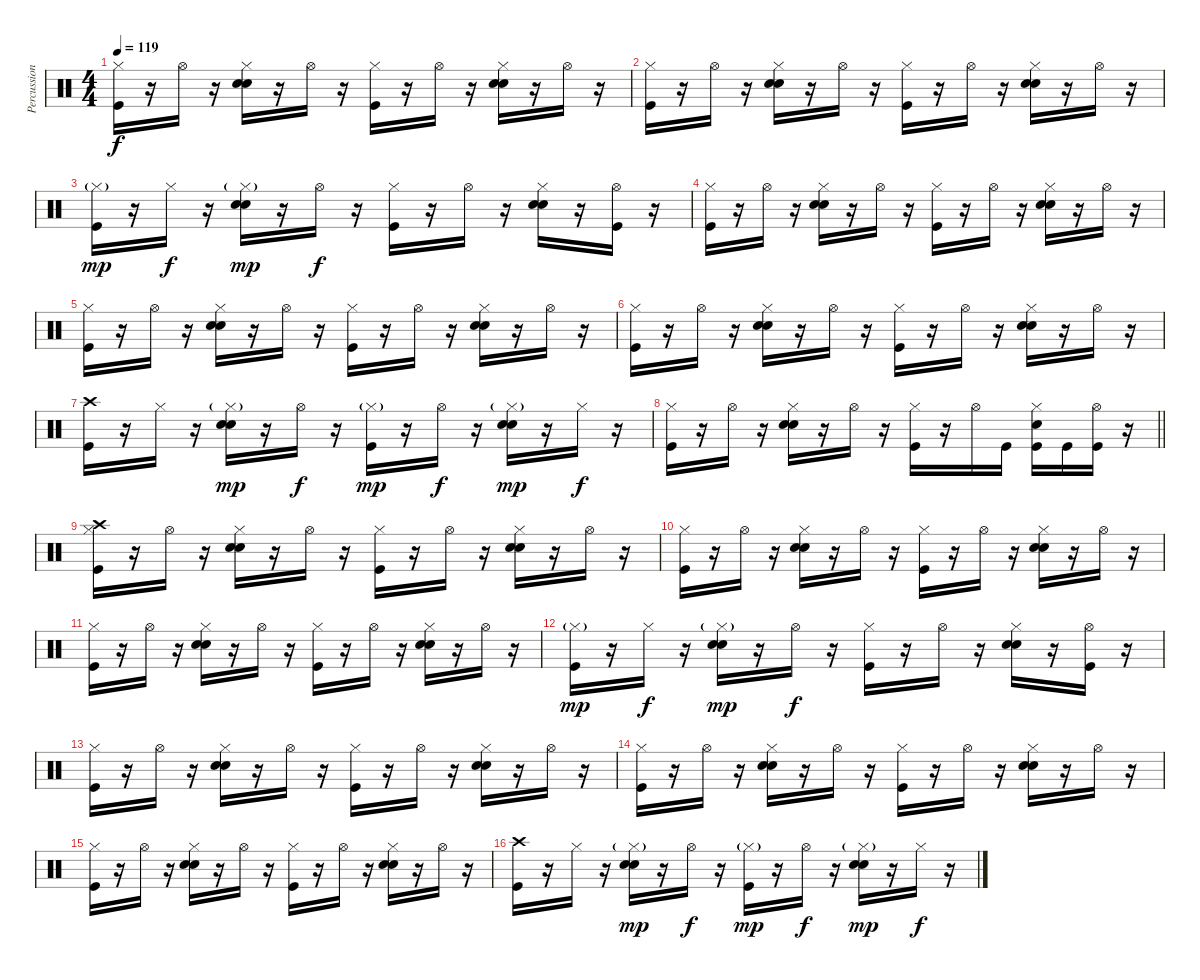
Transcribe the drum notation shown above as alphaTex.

\track ("Percussion" "Percussion") {instrument percussion}
\staff {score}
\articulation defaults
\ts (4 4)
\tempo 119
\clef neutral
\ks c
("Hi-Hat (closed)" "Kick (hit)").16{dy f} r.16 "Hi-Hat (open)".16 r.16 ("Hi-Hat (closed)" "Hand Clap (hit)" "Snare (hit) 2").16 r.16 "Hi-Hat (open)".16 r.16 ("Hi-Hat (closed)" "Kick (hit)").16 r.16 "Hi-Hat (open)".16 r.16 ("Hi-Hat (closed)" "Hand Clap (hit)" "Snare (hit) 2").16 r.16 "Hi-Hat (open)".16 r.16 |
("Hi-Hat (closed)" "Kick (hit)").16 r.16 "Hi-Hat (open)".16 r.16 ("Hi-Hat (closed)" "Hand Clap (hit)" "Snare (hit) 2").16 r.16 "Hi-Hat (open)".16 r.16 ("Hi-Hat (closed)" "Kick (hit)").16 r.16 "Hi-Hat (open)".16 r.16 ("Hi-Hat (closed)" "Hand Clap (hit)" "Snare (hit) 2").16 r.16 "Hi-Hat (open)".16 r.16 |
("Hi-Hat (closed)"{g} "Kick (hit)").16{dy mp} r.16 "Hi-Hat (closed)".16{dy f} r.16 ("Hi-Hat (closed)"{g} "Hand Clap (hit)" "Snare (hit) 2").16{dy mp} r.16 "Hi-Hat (open)".16{dy f} r.16 ("Hi-Hat (closed)" "Kick (hit)").16 r.16 "Hi-Hat (open)".16 r.16 ("Hi-Hat (closed)" "Hand Clap (hit)" "Snare (hit) 2").16 r.16 ("Hi-Hat (open)" "Kick (hit)").16 r.16 |
("Hi-Hat (closed)" "Kick (hit)").16 r.16 "Hi-Hat (open)".16 r.16 ("Hi-Hat (closed)" "Hand Clap (hit)" "Snare (hit) 2").16 r.16 "Hi-Hat (open)".16 r.16 ("Hi-Hat (closed)" "Kick (hit)").16 r.16 "Hi-Hat (open)".16 r.16 ("Hi-Hat (closed)" "Hand Clap (hit)" "Snare (hit) 2").16 r.16 "Hi-Hat (open)".16 r.16 |
("Hi-Hat (closed)" "Kick (hit)").16 r.16 "Hi-Hat (open)".16 r.16 ("Hi-Hat (closed)" "Hand Clap (hit)" "Snare (hit) 2").16 r.16 "Hi-Hat (open)".16 r.16 ("Hi-Hat (closed)" "Kick (hit)").16 r.16 "Hi-Hat (open)".16 r.16 ("Hi-Hat (closed)" "Hand Clap (hit)" "Snare (hit) 2").16 r.16 "Hi-Hat (open)".16 r.16 |
("Hi-Hat (closed)" "Kick (hit)").16 r.16 "Hi-Hat (open)".16 r.16 ("Hi-Hat (closed)" "Hand Clap (hit)" "Snare (hit) 2").16 r.16 "Hi-Hat (open)".16 r.16 ("Hi-Hat (closed)" "Kick (hit)").16 r.16 "Hi-Hat (open)".16 r.16 ("Hi-Hat (closed)" "Hand Clap (hit)" "Snare (hit) 2").16 r.16 "Hi-Hat (open)".16 r.16 |
("Crash high (hit)" "Kick (hit)").16 r.16 "Hi-Hat (closed)".16 r.16 ("Hi-Hat (closed)"{g} "Hand Clap (hit)" "Snare (hit) 2").16{dy mp} r.16 "Hi-Hat (open)".16{dy f} r.16 ("Hi-Hat (closed)"{g} "Kick (hit)").16{dy mp} r.16 "Hi-Hat (open)".16{dy f} r.16 ("Hi-Hat (closed)"{g} "Hand Clap (hit)" "Snare (hit) 2").16{dy mp} r.16 "Hi-Hat (closed)".16{dy f} r.16 |
\barLineRight lightlight
("Hi-Hat (closed)" "Kick (hit)").16 r.16 "Hi-Hat (open)".16 r.16 ("Hi-Hat (closed)" "Hand Clap (hit)" "Snare (hit) 2").16 r.16 "Hi-Hat (open)".16 r.16 ("Hi-Hat (closed)" "Kick (hit)").16 r.16 "Hi-Hat (open)".16 "Kick (hit)".16 ("Hi-Hat (closed)" "Hand Clap (hit)" "Kick (hit)").16 "Kick (hit)".16 ("Hi-Hat (open)" "Kick (hit)").16 r.16 |
("Crash high (hit)" "Hi-Hat (closed)" "Kick (hit)").16 r.16 "Hi-Hat (open)".16 r.16 ("Hi-Hat (closed)" "Hand Clap (hit)" "Snare (hit) 2").16 r.16 "Hi-Hat (open)".16 r.16 ("Hi-Hat (closed)" "Kick (hit)").16 r.16 "Hi-Hat (open)".16 r.16 ("Hi-Hat (closed)" "Hand Clap (hit)" "Snare (hit) 2").16 r.16 "Hi-Hat (open)".16 r.16 |
("Hi-Hat (closed)" "Kick (hit)").16 r.16 "Hi-Hat (open)".16 r.16 ("Hi-Hat (closed)" "Hand Clap (hit)" "Snare (hit) 2").16 r.16 "Hi-Hat (open)".16 r.16 ("Hi-Hat (closed)" "Kick (hit)").16 r.16 "Hi-Hat (open)".16 r.16 ("Hi-Hat (closed)" "Hand Clap (hit)" "Snare (hit) 2").16 r.16 "Hi-Hat (open)".16 r.16 |
("Hi-Hat (closed)" "Kick (hit)").16 r.16 "Hi-Hat (open)".16 r.16 ("Hi-Hat (closed)" "Hand Clap (hit)" "Snare (hit) 2").16 r.16 "Hi-Hat (open)".16 r.16 ("Hi-Hat (closed)" "Kick (hit)").16 r.16 "Hi-Hat (open)".16 r.16 ("Hi-Hat (closed)" "Hand Clap (hit)" "Snare (hit) 2").16 r.16 "Hi-Hat (open)".16 r.16 |
("Hi-Hat (closed)"{g} "Kick (hit)").16{dy mp} r.16 "Hi-Hat (closed)".16{dy f} r.16 ("Hi-Hat (closed)"{g} "Hand Clap (hit)" "Snare (hit) 2").16{dy mp} r.16 "Hi-Hat (open)".16{dy f} r.16 ("Hi-Hat (closed)" "Kick (hit)").16 r.16 "Hi-Hat (open)".16 r.16 ("Hi-Hat (closed)" "Hand Clap (hit)" "Snare (hit) 2").16 r.16 ("Hi-Hat (open)" "Kick (hit)").16 r.16 |
("Hi-Hat (closed)" "Kick (hit)").16 r.16 "Hi-Hat (open)".16 r.16 ("Hi-Hat (closed)" "Hand Clap (hit)" "Snare (hit) 2").16 r.16 "Hi-Hat (open)".16 r.16 ("Hi-Hat (closed)" "Kick (hit)").16 r.16 "Hi-Hat (open)".16 r.16 ("Hi-Hat (closed)" "Hand Clap (hit)" "Snare (hit) 2").16 r.16 "Hi-Hat (open)".16 r.16 |
("Hi-Hat (closed)" "Kick (hit)").16 r.16 "Hi-Hat (open)".16 r.16 ("Hi-Hat (closed)" "Hand Clap (hit)" "Snare (hit) 2").16 r.16 "Hi-Hat (open)".16 r.16 ("Hi-Hat (closed)" "Kick (hit)").16 r.16 "Hi-Hat (open)".16 r.16 ("Hi-Hat (closed)" "Hand Clap (hit)" "Snare (hit) 2").16 r.16 "Hi-Hat (open)".16 r.16 |
("Hi-Hat (closed)" "Kick (hit)").16 r.16 "Hi-Hat (open)".16 r.16 ("Hi-Hat (closed)" "Hand Clap (hit)" "Snare (hit) 2").16 r.16 "Hi-Hat (open)".16 r.16 ("Hi-Hat (closed)" "Kick (hit)").16 r.16 "Hi-Hat (open)".16 r.16 ("Hi-Hat (closed)" "Hand Clap (hit)" "Snare (hit) 2").16 r.16 "Hi-Hat (open)".16 r.16 |
("Crash high (hit)" "Kick (hit)").16 r.16 "Hi-Hat (closed)".16 r.16 ("Hi-Hat (closed)"{g} "Hand Clap (hit)" "Snare (hit) 2").16{dy mp} r.16 "Hi-Hat (open)".16{dy f} r.16 ("Hi-Hat (closed)"{g} "Kick (hit)").16{dy mp} r.16 "Hi-Hat (open)".16{dy f} r.16 ("Hi-Hat (closed)"{g} "Hand Clap (hit)" "Snare (hit) 2").16{dy mp} r.16 "Hi-Hat (closed)".16{dy f} r.16
